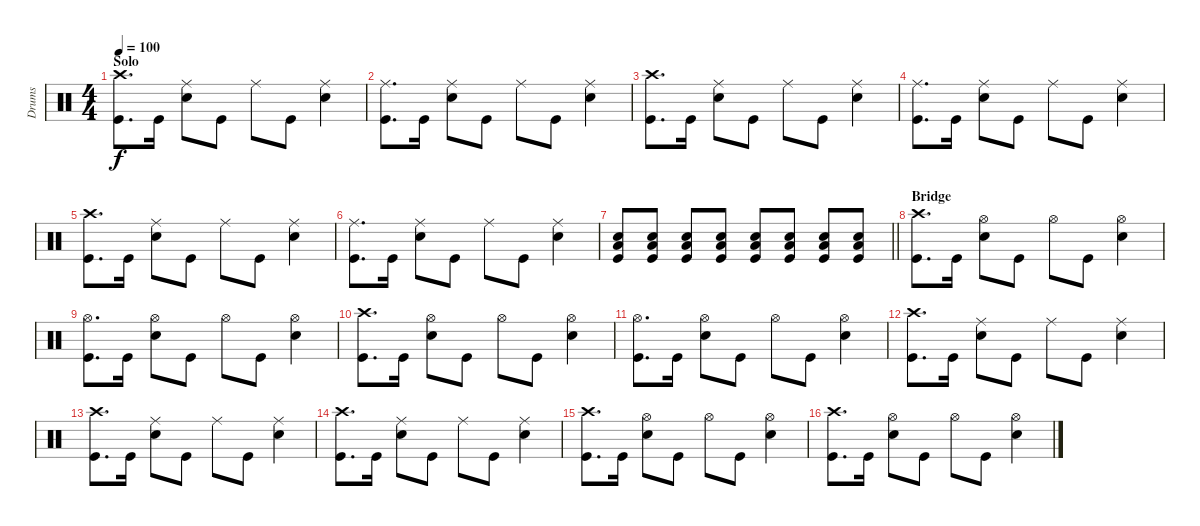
\track ("Drums" "Drums") {instrument percussion}
\staff {score}
\articulation defaults
\ts (4 4)
\section ("" "Solo")
\tempo 100
\clef neutral
\ks c
("Crash high (hit)" "Kick (hit)").8{d dy f} "Kick (hit)".16 ("Ride (middle)" "Snare (hit) 2").8 "Kick (hit)".8 "Ride (middle)".8 "Kick (hit)".8 ("Ride (middle)" "Snare (hit) 2").4 |
("Ride (middle)" "Kick (hit)").8{d} "Kick (hit)".16 ("Ride (middle)" "Snare (hit) 2").8 "Kick (hit)".8 "Ride (middle)".8 "Kick (hit)".8 ("Ride (middle)" "Snare (hit) 2").4 |
("Crash high (hit)" "Kick (hit)").8{d} "Kick (hit)".16 ("Ride (middle)" "Snare (hit) 2").8 "Kick (hit)".8 "Ride (middle)".8 "Kick (hit)".8 ("Ride (middle)" "Snare (hit) 2").4 |
("Ride (middle)" "Kick (hit)").8{d} "Kick (hit)".16 ("Ride (middle)" "Snare (hit) 2").8 "Kick (hit)".8 "Ride (middle)".8 "Kick (hit)".8 ("Ride (middle)" "Snare (hit) 2").4 |
("Crash high (hit)" "Kick (hit)").8{d} "Kick (hit)".16 ("Ride (middle)" "Snare (hit) 2").8 "Kick (hit)".8 "Ride (middle)".8 "Kick (hit)".8 ("Ride (middle)" "Snare (hit) 2").4 |
("Ride (middle)" "Kick (hit)").8{d} "Kick (hit)".16 ("Ride (middle)" "Snare (hit) 2").8 "Kick (hit)".8 "Ride (middle)".8 "Kick (hit)".8 ("Ride (middle)" "Snare (hit) 2").4 |
\barLineRight lightlight
("Snare (hit) 2" "Low Tom (hit)" "Kick (hit)").8 ("Snare (hit) 2" "Low Tom (hit)" "Kick (hit)").8 ("Snare (hit) 2" "Low Tom (hit)" "Kick (hit)").8 ("Snare (hit) 2" "Low Tom (hit)" "Kick (hit)").8 ("Snare (hit) 2" "Low Tom (hit)" "Kick (hit)").8 ("Snare (hit) 2" "Low Tom (hit)" "Kick (hit)").8 ("Snare (hit) 2" "Low Tom (hit)" "Kick (hit)").8 ("Snare (hit) 2" "Low Tom (hit)" "Kick (hit)").8 |
\section ("" "Bridge")
("Crash high (hit)" "Kick (hit)").8{d} "Kick (hit)".16 ("Hi-Hat (open)" "Snare (hit) 2").8 "Kick (hit)".8 "Hi-Hat (open)".8 "Kick (hit)".8 ("Hi-Hat (open)" "Snare (hit) 2").4 |
("Hi-Hat (open)" "Kick (hit)").8{d} "Kick (hit)".16 ("Hi-Hat (open)" "Snare (hit) 2").8 "Kick (hit)".8 "Hi-Hat (open)".8 "Kick (hit)".8 ("Hi-Hat (open)" "Snare (hit) 2").4 |
("Crash high (hit)" "Kick (hit)").8{d} "Kick (hit)".16 ("Hi-Hat (open)" "Snare (hit) 2").8 "Kick (hit)".8 "Hi-Hat (open)".8 "Kick (hit)".8 ("Hi-Hat (open)" "Snare (hit) 2").4 |
("Hi-Hat (open)" "Kick (hit)").8{d} "Kick (hit)".16 ("Hi-Hat (open)" "Snare (hit) 2").8 "Kick (hit)".8 "Hi-Hat (open)".8 "Kick (hit)".8 ("Hi-Hat (open)" "Snare (hit) 2").4 |
("Crash high (hit)" "Kick (hit)").8{d} "Kick (hit)".16 ("Ride (middle)" "Snare (hit) 2").8 "Kick (hit)".8 "Ride (middle)".8 "Kick (hit)".8 ("Ride (middle)" "Snare (hit) 2").4 |
("Crash high (hit)" "Kick (hit)").8{d} "Kick (hit)".16 ("Ride (middle)" "Snare (hit) 2").8 "Kick (hit)".8 "Ride (middle)".8 "Kick (hit)".8 ("Ride (middle)" "Snare (hit) 2").4 |
("Crash high (hit)" "Kick (hit)").8{d} "Kick (hit)".16 ("Ride (middle)" "Snare (hit) 2").8 "Kick (hit)".8 "Ride (middle)".8 "Kick (hit)".8 ("Ride (middle)" "Snare (hit) 2").4 |
("Crash high (hit)" "Kick (hit)").8{d} "Kick (hit)".16 ("Hi-Hat (open)" "Snare (hit) 2").8 "Kick (hit)".8 "Hi-Hat (open)".8 "Kick (hit)".8 ("Hi-Hat (open)" "Snare (hit) 2").4 |
("Crash high (hit)" "Kick (hit)").8{d} "Kick (hit)".16 ("Hi-Hat (open)" "Snare (hit) 2").8 "Kick (hit)".8 "Hi-Hat (open)".8 "Kick (hit)".8 ("Hi-Hat (open)" "Snare (hit) 2").4
